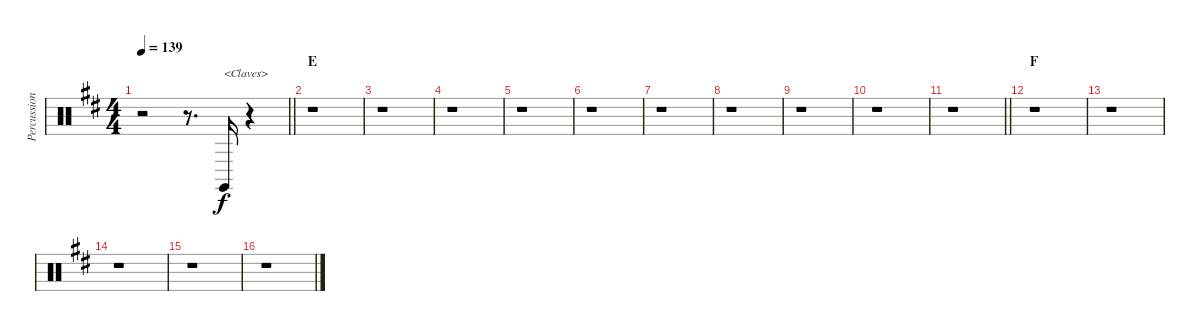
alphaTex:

\track ("Percussion" "Percussion") {instrument percussion}
\staff {score}
\articulation defaults
\ts (4 4)
\tempo 139
\clef neutral
\barLineRight lightlight
\ks d
r.2{dy ff} r.8{d} "Claves (hit)".16{txt "<Claves>" dy f} r.4 |
\section ("" "E")
r.1 |
r.1 |
r.1 |
r.1 |
r.1 |
r.1 |
r.1 |
r.1 |
r.1 |
\barLineRight lightlight
r.1 |
\section ("" "F")
r.1 |
r.1 |
r.1 |
r.1 |
r.1
